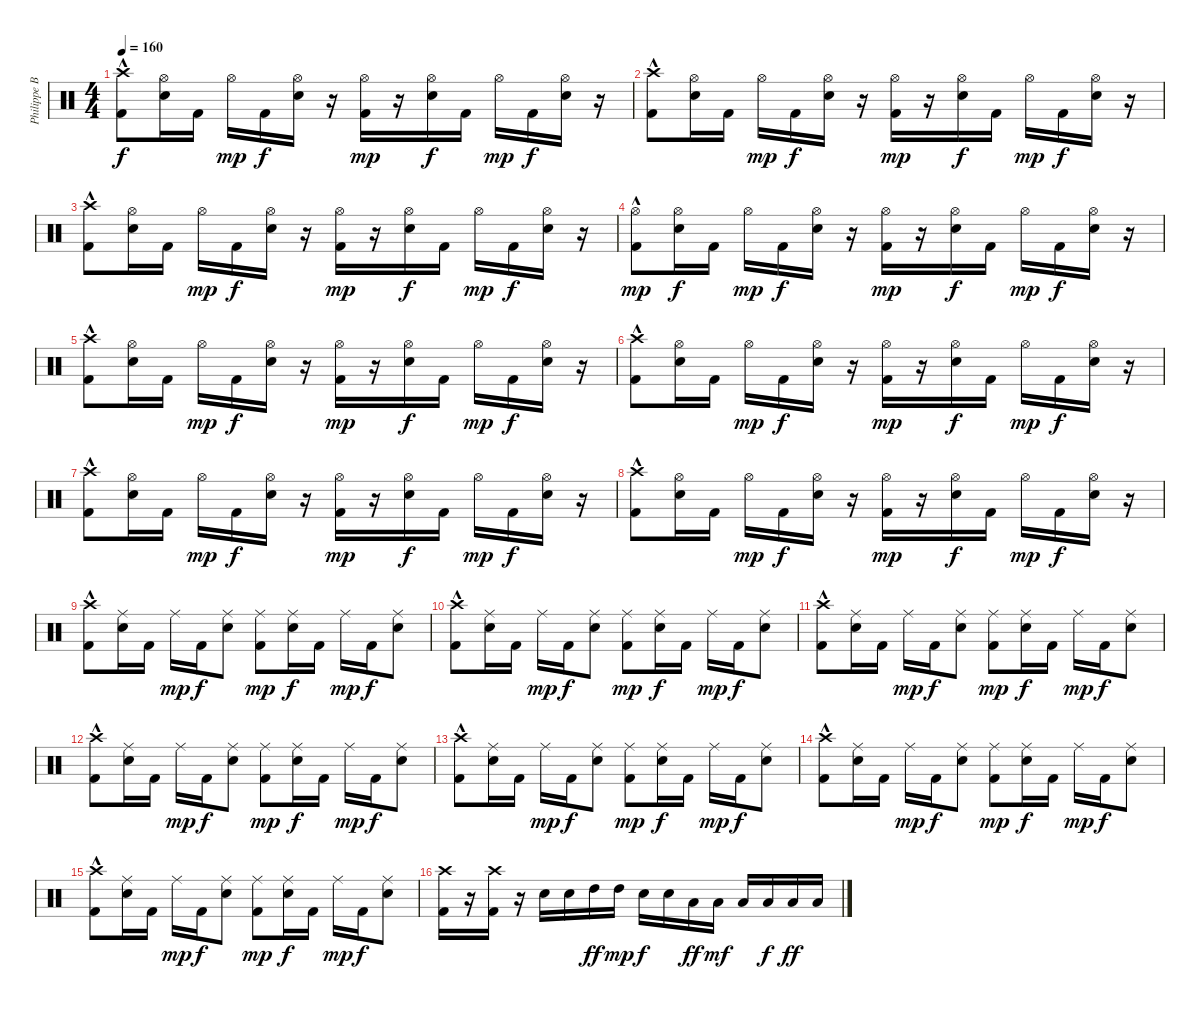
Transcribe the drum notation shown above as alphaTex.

\track ("Philippe Borda" "Philippe B") {instrument percussion}
\staff {score}
\articulation defaults
\ts (4 4)
\tempo 160
\clef neutral
\ks c
("Kick (hit) 2"{hac} "Crash high (hit)").8{dy f} ("Snare (hit) 2" "Hi-Hat (open)").16 "Kick (hit) 2".16 "Hi-Hat (open)".16{dy mp} "Kick (hit) 2".16{dy f} ("Snare (hit) 2" "Hi-Hat (open)").16 r.16 ("Kick (hit) 2" "Hi-Hat (open)").16{dy mp} r.16 ("Snare (hit) 2" "Hi-Hat (open)").16{dy f} "Kick (hit) 2".16 "Hi-Hat (open)".16{dy mp} "Kick (hit) 2".16{dy f} ("Snare (hit) 2" "Hi-Hat (open)").16 r.16 |
("Kick (hit) 2"{hac} "Crash high (hit)").8 ("Snare (hit) 2" "Hi-Hat (open)").16 "Kick (hit) 2".16 "Hi-Hat (open)".16{dy mp} "Kick (hit) 2".16{dy f} ("Snare (hit) 2" "Hi-Hat (open)").16 r.16 ("Kick (hit) 2" "Hi-Hat (open)").16{dy mp} r.16 ("Snare (hit) 2" "Hi-Hat (open)").16{dy f} "Kick (hit) 2".16 "Hi-Hat (open)".16{dy mp} "Kick (hit) 2".16{dy f} ("Snare (hit) 2" "Hi-Hat (open)").16 r.16 |
("Kick (hit) 2"{hac} "Crash high (hit)").8 ("Snare (hit) 2" "Hi-Hat (open)").16 "Kick (hit) 2".16 "Hi-Hat (open)".16{dy mp} "Kick (hit) 2".16{dy f} ("Snare (hit) 2" "Hi-Hat (open)").16 r.16 ("Kick (hit) 2" "Hi-Hat (open)").16{dy mp} r.16 ("Snare (hit) 2" "Hi-Hat (open)").16{dy f} "Kick (hit) 2".16 "Hi-Hat (open)".16{dy mp} "Kick (hit) 2".16{dy f} ("Snare (hit) 2" "Hi-Hat (open)").16 r.16 |
("Kick (hit) 2"{hac} "Hi-Hat (open)").8{dy mp} ("Snare (hit) 2" "Hi-Hat (open)").16{dy f} "Kick (hit) 2".16 "Hi-Hat (open)".16{dy mp} "Kick (hit) 2".16{dy f} ("Snare (hit) 2" "Hi-Hat (open)").16 r.16 ("Kick (hit) 2" "Hi-Hat (open)").16{dy mp} r.16 ("Snare (hit) 2" "Hi-Hat (open)").16{dy f} "Kick (hit) 2".16 "Hi-Hat (open)".16{dy mp} "Kick (hit) 2".16{dy f} ("Snare (hit) 2" "Hi-Hat (open)").16 r.16 |
("Kick (hit) 2"{hac} "Crash high (hit)").8 ("Snare (hit) 2" "Hi-Hat (open)").16 "Kick (hit) 2".16 "Hi-Hat (open)".16{dy mp} "Kick (hit) 2".16{dy f} ("Snare (hit) 2" "Hi-Hat (open)").16 r.16 ("Kick (hit) 2" "Hi-Hat (open)").16{dy mp} r.16 ("Snare (hit) 2" "Hi-Hat (open)").16{dy f} "Kick (hit) 2".16 "Hi-Hat (open)".16{dy mp} "Kick (hit) 2".16{dy f} ("Snare (hit) 2" "Hi-Hat (open)").16 r.16 |
("Kick (hit) 2"{hac} "Crash high (hit)").8 ("Snare (hit) 2" "Hi-Hat (open)").16 "Kick (hit) 2".16 "Hi-Hat (open)".16{dy mp} "Kick (hit) 2".16{dy f} ("Snare (hit) 2" "Hi-Hat (open)").16 r.16 ("Kick (hit) 2" "Hi-Hat (open)").16{dy mp} r.16 ("Snare (hit) 2" "Hi-Hat (open)").16{dy f} "Kick (hit) 2".16 "Hi-Hat (open)".16{dy mp} "Kick (hit) 2".16{dy f} ("Snare (hit) 2" "Hi-Hat (open)").16 r.16 |
("Kick (hit) 2"{hac} "Crash high (hit)").8 ("Snare (hit) 2" "Hi-Hat (open)").16 "Kick (hit) 2".16 "Hi-Hat (open)".16{dy mp} "Kick (hit) 2".16{dy f} ("Snare (hit) 2" "Hi-Hat (open)").16 r.16 ("Kick (hit) 2" "Hi-Hat (open)").16{dy mp} r.16 ("Snare (hit) 2" "Hi-Hat (open)").16{dy f} "Kick (hit) 2".16 "Hi-Hat (open)".16{dy mp} "Kick (hit) 2".16{dy f} ("Snare (hit) 2" "Hi-Hat (open)").16 r.16 |
("Kick (hit) 2"{hac} "Crash high (hit)").8 ("Snare (hit) 2" "Hi-Hat (open)").16 "Kick (hit) 2".16 "Hi-Hat (open)".16{dy mp} "Kick (hit) 2".16{dy f} ("Snare (hit) 2" "Hi-Hat (open)").16 r.16 ("Kick (hit) 2" "Hi-Hat (open)").16{dy mp} r.16 ("Snare (hit) 2" "Hi-Hat (open)").16{dy f} "Kick (hit) 2".16 "Hi-Hat (open)".16{dy mp} "Kick (hit) 2".16{dy f} ("Snare (hit) 2" "Hi-Hat (open)").16 r.16 |
("Kick (hit) 2"{hac} "Crash high (hit)").8 ("Snare (hit) 2" "Ride (middle)").16 "Kick (hit) 2".16 "Ride (middle)".16{dy mp} "Kick (hit) 2".16{dy f} ("Snare (hit) 2" "Ride (middle)").8 ("Kick (hit) 2" "Ride (middle)").8{dy mp} ("Snare (hit) 2" "Ride (middle)").16{dy f} "Kick (hit) 2".16 "Ride (middle)".16{dy mp} "Kick (hit) 2".16{dy f} ("Snare (hit) 2" "Ride (middle)").8 |
("Kick (hit) 2"{hac} "Crash high (hit)").8 ("Snare (hit) 2" "Ride (middle)").16 "Kick (hit) 2".16 "Ride (middle)".16{dy mp} "Kick (hit) 2".16{dy f} ("Snare (hit) 2" "Ride (middle)").8 ("Kick (hit) 2" "Ride (middle)").8{dy mp} ("Snare (hit) 2" "Ride (middle)").16{dy f} "Kick (hit) 2".16 "Ride (middle)".16{dy mp} "Kick (hit) 2".16{dy f} ("Snare (hit) 2" "Ride (middle)").8 |
("Kick (hit) 2"{hac} "Crash high (hit)").8 ("Snare (hit) 2" "Ride (middle)").16 "Kick (hit) 2".16 "Ride (middle)".16{dy mp} "Kick (hit) 2".16{dy f} ("Snare (hit) 2" "Ride (middle)").8 ("Kick (hit) 2" "Ride (middle)").8{dy mp} ("Snare (hit) 2" "Ride (middle)").16{dy f} "Kick (hit) 2".16 "Ride (middle)".16{dy mp} "Kick (hit) 2".16{dy f} ("Snare (hit) 2" "Ride (middle)").8 |
("Kick (hit) 2"{hac} "Crash high (hit)").8 ("Snare (hit) 2" "Ride (middle)").16 "Kick (hit) 2".16 "Ride (middle)".16{dy mp} "Kick (hit) 2".16{dy f} ("Snare (hit) 2" "Ride (middle)").8 ("Kick (hit) 2" "Ride (middle)").8{dy mp} ("Snare (hit) 2" "Ride (middle)").16{dy f} "Kick (hit) 2".16 "Ride (middle)".16{dy mp} "Kick (hit) 2".16{dy f} ("Snare (hit) 2" "Ride (middle)").8 |
("Kick (hit) 2"{hac} "Crash high (hit)").8 ("Snare (hit) 2" "Ride (middle)").16 "Kick (hit) 2".16 "Ride (middle)".16{dy mp} "Kick (hit) 2".16{dy f} ("Snare (hit) 2" "Ride (middle)").8 ("Kick (hit) 2" "Ride (middle)").8{dy mp} ("Snare (hit) 2" "Ride (middle)").16{dy f} "Kick (hit) 2".16 "Ride (middle)".16{dy mp} "Kick (hit) 2".16{dy f} ("Snare (hit) 2" "Ride (middle)").8 |
("Kick (hit) 2"{hac} "Crash high (hit)").8 ("Snare (hit) 2" "Ride (middle)").16 "Kick (hit) 2".16 "Ride (middle)".16{dy mp} "Kick (hit) 2".16{dy f} ("Snare (hit) 2" "Ride (middle)").8 ("Kick (hit) 2" "Ride (middle)").8{dy mp} ("Snare (hit) 2" "Ride (middle)").16{dy f} "Kick (hit) 2".16 "Ride (middle)".16{dy mp} "Kick (hit) 2".16{dy f} ("Snare (hit) 2" "Ride (middle)").8 |
("Kick (hit) 2"{hac} "Crash high (hit)").8 ("Snare (hit) 2" "Ride (middle)").16 "Kick (hit) 2".16 "Ride (middle)".16{dy mp} "Kick (hit) 2".16{dy f} ("Snare (hit) 2" "Ride (middle)").8 ("Kick (hit) 2" "Ride (middle)").8{dy mp} ("Snare (hit) 2" "Ride (middle)").16{dy f} "Kick (hit) 2".16 "Ride (middle)".16{dy mp} "Kick (hit) 2".16{dy f} ("Snare (hit) 2" "Ride (middle)").8 |
("Kick (hit) 2" "Crash high (hit)").16 r.16 ("Kick (hit) 2" "Crash high (hit)").16 r.16 "Snare (hit) 2".16 "Snare (hit) 2".16 "High Tom (hit)".16{dy ff} "High Tom (hit)".16{dy mp} "Snare (hit) 2".16{dy f} "Snare (hit) 2".16 "Low Tom (hit)".16{dy ff} "Low Tom (hit)".16{dy mf} "Low Floor Tom (hit)".16 "Low Floor Tom (hit)".16{dy f} "Low Floor Tom (hit)".16{dy ff} "Low Floor Tom (hit)".16
